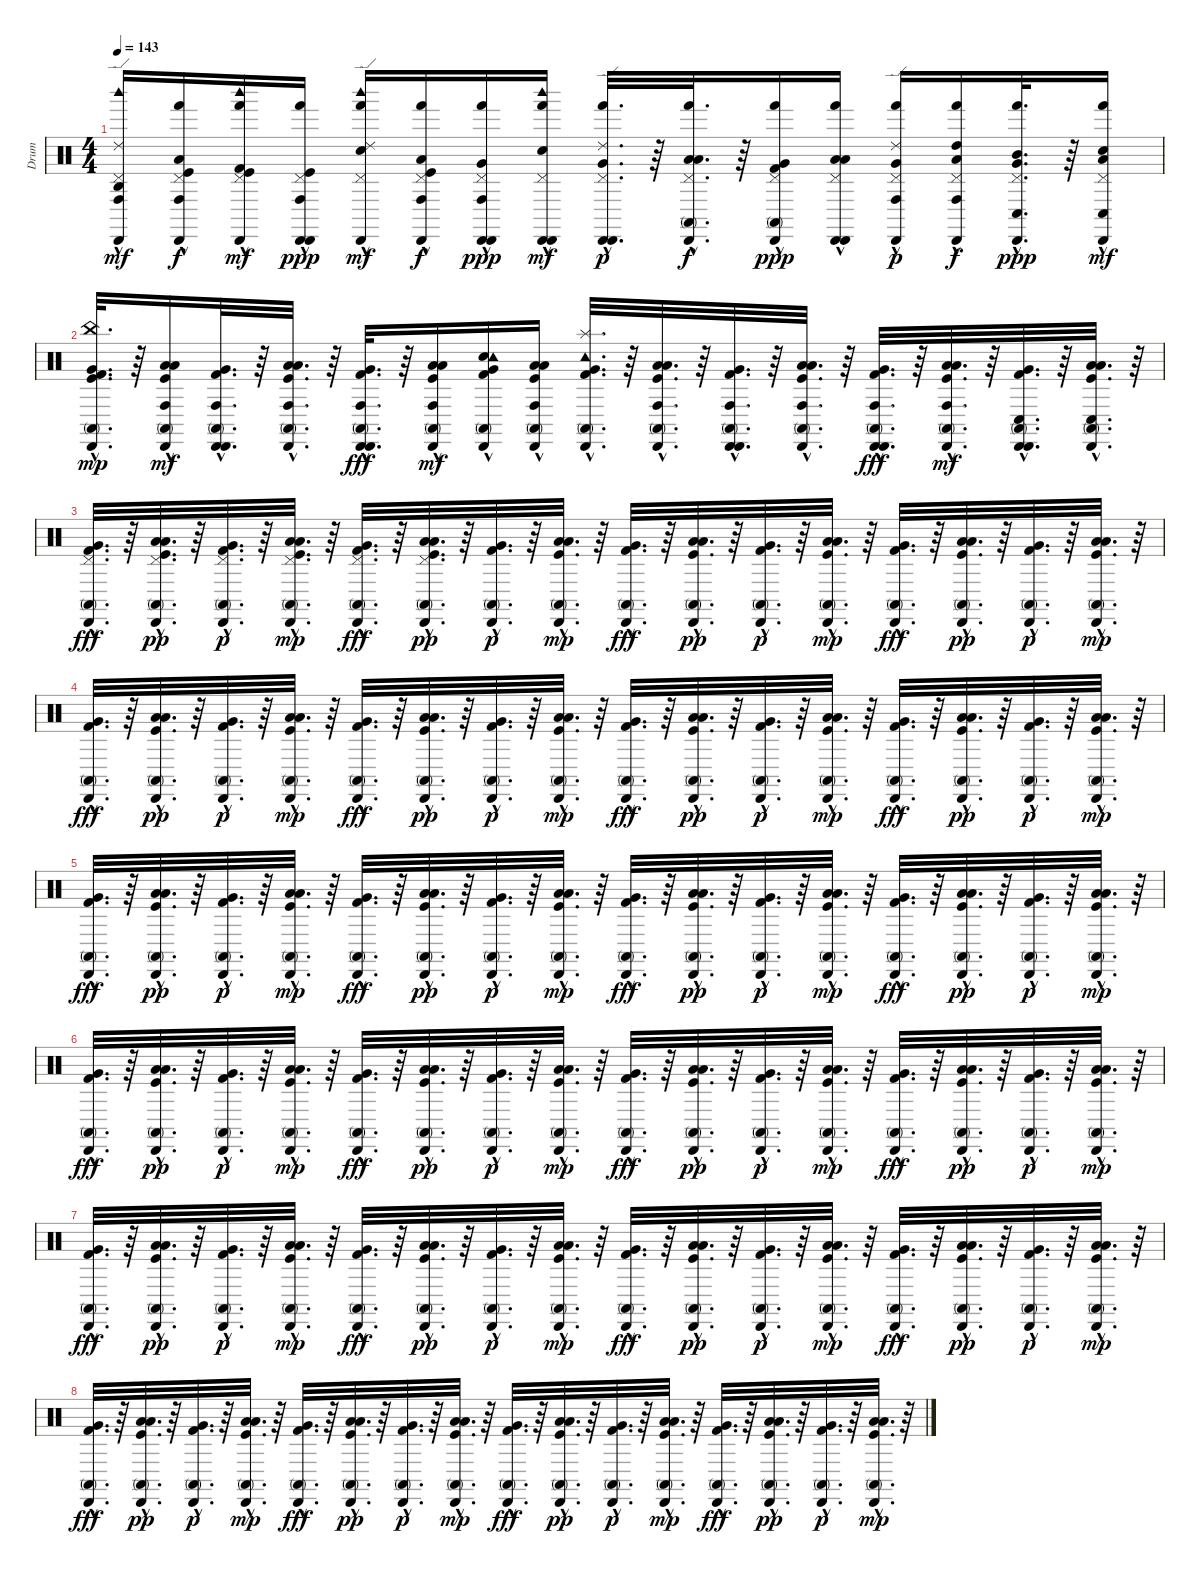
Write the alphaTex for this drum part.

\track ("Drum" "Drum") {instrument percussion}
\staff {score}
\articulation defaults
\ts (4 4)
\tempo 143
\clef neutral
\ks c
("Ride (edge) 2"{hac} "Pedal Hi-Hat (hit)"{hac} "Woodblock high (hit)"{hac} "Conga high (hit)"{hac} "Cabasa (hit)"{hac} "Agogo high (hit)"{hac}).16{dy mf} ("Conga high (hit)"{hac} "Cabasa (hit)"{hac} "Low Tom (hit)" "Hand (hit)"{hac} "Pedal Hi-Hat (hit)"{hac} "Kick (hit)"{hac}).16{dy f} ("Pedal Hi-Hat (hit)"{hac} "Woodblock high (hit)"{hac} "Kick (hit)"{hac} "Cabasa (hit)"{hac} "Kick (hit) 2"{hac} "Hand (hit)"{hac}).16{dy mf} ("Conga high (hit)"{hac} "Cabasa (hit)"{hac} "Cabasa (hit)"{hac} "Hand (hit)"{hac} "Pedal Hi-Hat (hit)"{hac} "Kick (hit)"{hac}).16{dy ppp} ("Pedal Hi-Hat (hit)"{hac} "Ride (edge) 2"{hac} "Snare (hit) 2" "Cabasa (hit)"{hac} "Woodblock high (hit)"{hac} "Hand (hit)"{hac}).16{dy mf} ("Conga high (hit)"{hac} "Cabasa (hit)"{hac} "Kick (hit)" "Hand (hit)"{hac} "Pedal Hi-Hat (hit)"{hac} "Low Tom (hit)").16{dy f} ("Pedal Hi-Hat (hit)"{hac} "Hand (hit)"{hac} "Cabasa (hit)"{hac} "Conga high (hit)" "Very Low Tom (hit)"{hac} "Cabasa (hit)"{hac}).16{dy ppp} ("Pedal Hi-Hat (hit)"{hac} "Woodblock high (hit)"{hac} "Snare (hit) 2"{hac} "Cabasa (hit)"{hac} "Cabasa (hit)"{hac} "Hand (hit)"{hac}).16{dy mf} ("Ride (edge) 2"{hac} "Hand (hit)"{hac} "Pedal Hi-Hat (hit)"{hac} "Cabasa (hit)"{hac} "Very Low Tom (hit)"{hac} "Cabasa (hit)"{hac}).32{d dy p} r.64 ("Pedal Hi-Hat (hit)"{hac} "Cabasa (hit)"{hac} "Hand (hit)"{hac} "Low Tom (hit)"{hac} "Low Floor Tom (hit)"{hac} "Conga high (mute)"{hac}).32{d dy f} r.64 ("Kick (hit) 2" "Hand (hit)"{hac} "Pedal Hi-Hat (hit)"{hac} "Very Low Tom (hit)"{hac} "Conga high (mute)" "Cabasa (hit)"{hac}).16{dy ppp} ("Pedal Hi-Hat (hit)"{hac} "Hand (hit)"{hac} "Cabasa (hit)"{hac} "Cabasa (hit)"{hac} "Low Tom (hit)"{hac} "Low Floor Tom (hit)").16 ("Pedal Hi-Hat (hit)"{hac} "Ride (edge) 2" "Cabasa (hit)"{hac} "Conga high (hit)"{hac} "Hand (hit)"{hac} "Very Low Tom (hit)"{hac}).16{dy p} ("Cabasa (hit)"{hac} "Pedal Hi-Hat (hit)"{hac} "Conga high (hit)"{hac} "High Tom (hit)"{hac} "Hand (hit)"{hac} "Low Tom (hit)"{hac}).16{dy f} ("Pedal Hi-Hat (hit)"{hac} "Hand (hit)"{hac} "Cabasa (hit)"{hac} "Conga low (hit)"{hac} "Mid Tom (hit)"{hac} "Very Low Tom (hit)"{hac}).32{d dy ppp} r.64 ("Snare (hit) 2" "Pedal Hi-Hat (hit)" "Cabasa (hit)"{hac} "Conga low (hit)"{hac} "Low Tom (hit)"{hac} "Hand (hit)").16{dy mf} |
("China (hit)"{hac} "Kick (hit) 2"{hac} "Cabasa (hit)"{hac} "Conga high (mute)"{hac} "Very Low Tom (hit)"{hac} "Kick (hit)"{hac}).32{d dy mp} r.64 ("Kick (hit)"{hac} "Cabasa (hit)"{hac} "Conga high (mute)"{hac} "Low Floor Tom (hit)"{hac} "Low Tom (hit)"{hac} "Conga high (hit)"{hac}).16{dy mf} ("Kick (hit) 2"{hac} "Cabasa (hit)"{hac} "Conga high (mute)"{hac} "Very Low Tom (hit)"{hac} "Conga high (hit)"{hac} "Cabasa (hit)"{hac}).32{d} r.64 ("Kick (hit)"{hac} "Conga high (mute)"{hac} "Low Floor Tom (hit)"{hac} "Low Tom (hit)"{hac} "Cabasa (hit)"{hac} "Conga high (hit)"{hac}).32{d} r.64 ("Very Low Tom (hit)"{hac} "Conga high (mute)"{hac} "Cabasa (hit)"{hac} "Kick (hit) 2"{hac} "Conga high (hit)"{hac} "Cabasa (hit)"{hac}).32{d dy fff} r.64 ("Low Tom (hit)"{hac} "Low Floor Tom (hit)"{hac} "Conga high (mute)"{hac} "Cabasa (hit)"{hac} "Kick (hit)"{hac} "Conga high (hit)"{hac}).16{dy mf} ("Very Low Tom (hit)"{hac} "Conga high (mute)"{hac} "Cabasa (hit)"{hac} "Kick (hit) 2"{hac} "Snare (hit) 2"{hac} "Tambourine (hit)"{hac}).16 ("Cabasa (hit)"{hac} "Low Tom (hit)"{hac} "Low Floor Tom (hit)"{hac} "Conga high (mute)"{hac} "Kick (hit)"{hac} "Conga high (hit)"{hac}).16 ("Very Low Tom (hit)"{hac} "Conga high (mute)"{hac} "Cabasa (hit)"{hac} "Kick (hit) 2"{hac} "Tambourine (hit)"{hac} "Splash (hit)"{hac}).32{d} r.64 ("Low Tom (hit)"{hac} "Low Floor Tom (hit)"{hac} "Conga high (mute)"{hac} "Cabasa (hit)"{hac} "Kick (hit)"{hac} "Conga high (hit)"{hac}).32{d} r.64 ("Very Low Tom (hit)"{hac} "Conga high (mute)"{hac} "Cabasa (hit)"{hac} "Kick (hit) 2"{hac} "Conga high (hit)"{hac} "Cabasa (hit)"{hac}).32{d} r.64 ("Cabasa (hit)"{hac} "Low Tom (hit)"{hac} "Low Floor Tom (hit)"{hac} "Conga high (mute)"{hac} "Kick (hit)"{hac} "Conga high (hit)"{hac}).32{d} r.64 ("Very Low Tom (hit)"{hac} "Conga high (mute)"{hac} "Cabasa (hit)"{hac} "Kick (hit) 2"{hac} "Conga high (hit)"{hac} "Cabasa (hit)"{hac}).32{d dy fff} r.64 ("Low Tom (hit)"{hac} "Low Floor Tom (hit)"{hac} "Conga high (mute)"{hac} "Cabasa (hit)"{hac} "Kick (hit)"{hac} "Conga high (hit)"{hac}).32{d dy mf} r.64 ("Very Low Tom (hit)"{hac} "Conga high (mute)"{hac} "Cabasa (hit)"{hac} "Kick (hit) 2"{hac} "Conga low (hit)"{hac} "Cabasa (hit)"{hac}).32{d} r.64 ("Cabasa (hit)"{hac} "Low Tom (hit)"{hac} "Low Floor Tom (hit)"{hac} "Conga high (mute)"{hac} "Kick (hit)"{hac} "Conga low (hit)"{hac}).32{d} r.64 |
("Pedal Hi-Hat (hit)"{hac} "Kick (hit) 2"{hac} "Cabasa (hit)"{hac} "Conga high (mute)"{hac} "Very Low Tom (hit)"{hac}).32{d dy fff} r.64 ("Pedal Hi-Hat (hit)"{hac} "Kick (hit)"{hac} "Cabasa (hit)"{hac} "Conga high (mute)"{hac} "Low Floor Tom (hit)"{hac} "Low Tom (hit)"{hac}).32{d dy pp} r.64 ("Pedal Hi-Hat (hit)"{hac} "Kick (hit) 2"{hac} "Cabasa (hit)"{hac} "Conga high (mute)"{hac} "Very Low Tom (hit)"{hac}).32{d dy p} r.64 ("Pedal Hi-Hat (hit)"{hac} "Kick (hit)"{hac} "Conga high (mute)"{hac} "Low Floor Tom (hit)"{hac} "Low Tom (hit)"{hac} "Cabasa (hit)"{hac}).32{d dy mp} r.64 ("Pedal Hi-Hat (hit)"{hac} "Very Low Tom (hit)"{hac} "Conga high (mute)"{hac} "Cabasa (hit)"{hac} "Kick (hit) 2"{hac}).32{d dy fff} r.64 ("Pedal Hi-Hat (hit)"{hac} "Low Tom (hit)"{hac} "Low Floor Tom (hit)"{hac} "Conga high (mute)"{hac} "Cabasa (hit)"{hac} "Kick (hit)"{hac}).32{d dy pp} r.64 ("Very Low Tom (hit)"{hac} "Conga high (mute)"{hac} "Cabasa (hit)"{hac} "Kick (hit) 2"{hac}).32{d dy p} r.64 ("Cabasa (hit)"{hac} "Low Tom (hit)"{hac} "Low Floor Tom (hit)"{hac} "Conga high (mute)"{hac} "Kick (hit)"{hac}).32{d dy mp} r.64 ("Very Low Tom (hit)"{hac} "Conga high (mute)"{hac} "Cabasa (hit)"{hac} "Kick (hit) 2"{hac}).32{d dy fff} r.64 ("Low Tom (hit)"{hac} "Low Floor Tom (hit)"{hac} "Conga high (mute)"{hac} "Cabasa (hit)"{hac} "Kick (hit)"{hac}).32{d dy pp} r.64 ("Very Low Tom (hit)"{hac} "Conga high (mute)"{hac} "Cabasa (hit)"{hac} "Kick (hit) 2"{hac}).32{d dy p} r.64 ("Cabasa (hit)"{hac} "Low Tom (hit)"{hac} "Low Floor Tom (hit)"{hac} "Conga high (mute)"{hac} "Kick (hit)"{hac}).32{d dy mp} r.64 ("Very Low Tom (hit)"{hac} "Conga high (mute)"{hac} "Cabasa (hit)"{hac} "Kick (hit) 2"{hac}).32{d dy fff} r.64 ("Low Tom (hit)"{hac} "Low Floor Tom (hit)"{hac} "Conga high (mute)"{hac} "Cabasa (hit)"{hac} "Kick (hit)"{hac}).32{d dy pp} r.64 ("Very Low Tom (hit)"{hac} "Conga high (mute)"{hac} "Cabasa (hit)"{hac} "Kick (hit) 2"{hac}).32{d dy p} r.64 ("Cabasa (hit)"{hac} "Low Tom (hit)"{hac} "Low Floor Tom (hit)"{hac} "Conga high (mute)"{hac} "Kick (hit)"{hac}).32{d dy mp} r.64 |
("Very Low Tom (hit)"{hac} "Conga high (mute)"{hac} "Cabasa (hit)"{hac} "Kick (hit) 2"{hac}).32{d dy fff} r.64 ("Low Tom (hit)"{hac} "Low Floor Tom (hit)"{hac} "Conga high (mute)"{hac} "Cabasa (hit)"{hac} "Kick (hit)"{hac}).32{d dy pp} r.64 ("Very Low Tom (hit)"{hac} "Conga high (mute)"{hac} "Cabasa (hit)"{hac} "Kick (hit) 2"{hac}).32{d dy p} r.64 ("Cabasa (hit)"{hac} "Low Tom (hit)"{hac} "Low Floor Tom (hit)"{hac} "Conga high (mute)"{hac} "Kick (hit)"{hac}).32{d dy mp} r.64 ("Kick (hit) 2"{hac} "Cabasa (hit)"{hac} "Conga high (mute)"{hac} "Very Low Tom (hit)"{hac}).32{d dy fff} r.64 ("Kick (hit)"{hac} "Cabasa (hit)"{hac} "Conga high (mute)"{hac} "Low Floor Tom (hit)"{hac} "Low Tom (hit)"{hac}).32{d dy pp} r.64 ("Kick (hit) 2"{hac} "Cabasa (hit)"{hac} "Conga high (mute)"{hac} "Very Low Tom (hit)"{hac}).32{d dy p} r.64 ("Kick (hit)"{hac} "Conga high (mute)"{hac} "Low Floor Tom (hit)"{hac} "Low Tom (hit)"{hac} "Cabasa (hit)"{hac}).32{d dy mp} r.64 ("Kick (hit) 2"{hac} "Cabasa (hit)"{hac} "Conga high (mute)"{hac} "Very Low Tom (hit)"{hac}).32{d dy fff} r.64 ("Kick (hit)"{hac} "Cabasa (hit)"{hac} "Conga high (mute)"{hac} "Low Floor Tom (hit)"{hac} "Low Tom (hit)"{hac}).32{d dy pp} r.64 ("Kick (hit) 2"{hac} "Cabasa (hit)"{hac} "Conga high (mute)"{hac} "Very Low Tom (hit)"{hac}).32{d dy p} r.64 ("Kick (hit)"{hac} "Conga high (mute)"{hac} "Low Floor Tom (hit)"{hac} "Low Tom (hit)"{hac} "Cabasa (hit)"{hac}).32{d dy mp} r.64 ("Kick (hit) 2"{hac} "Cabasa (hit)"{hac} "Conga high (mute)"{hac} "Very Low Tom (hit)"{hac}).32{d dy fff} r.64 ("Kick (hit)"{hac} "Cabasa (hit)"{hac} "Conga high (mute)"{hac} "Low Floor Tom (hit)"{hac} "Low Tom (hit)"{hac}).32{d dy pp} r.64 ("Kick (hit) 2"{hac} "Cabasa (hit)"{hac} "Conga high (mute)"{hac} "Very Low Tom (hit)"{hac}).32{d dy p} r.64 ("Kick (hit)"{hac} "Conga high (mute)"{hac} "Low Floor Tom (hit)"{hac} "Low Tom (hit)"{hac} "Cabasa (hit)"{hac}).32{d dy mp} r.64 |
("Kick (hit) 2"{hac} "Cabasa (hit)"{hac} "Conga high (mute)"{hac} "Very Low Tom (hit)"{hac}).32{d dy fff} r.64 ("Kick (hit)"{hac} "Cabasa (hit)"{hac} "Conga high (mute)"{hac} "Low Floor Tom (hit)"{hac} "Low Tom (hit)"{hac}).32{d dy pp} r.64 ("Kick (hit) 2"{hac} "Cabasa (hit)"{hac} "Conga high (mute)"{hac} "Very Low Tom (hit)"{hac}).32{d dy p} r.64 ("Kick (hit)"{hac} "Conga high (mute)"{hac} "Low Floor Tom (hit)"{hac} "Low Tom (hit)"{hac} "Cabasa (hit)"{hac}).32{d dy mp} r.64 ("Very Low Tom (hit)"{hac} "Conga high (mute)"{hac} "Cabasa (hit)"{hac} "Kick (hit) 2"{hac}).32{d dy fff} r.64 ("Low Tom (hit)"{hac} "Low Floor Tom (hit)"{hac} "Conga high (mute)"{hac} "Cabasa (hit)"{hac} "Kick (hit)"{hac}).32{d dy pp} r.64 ("Very Low Tom (hit)"{hac} "Conga high (mute)"{hac} "Cabasa (hit)"{hac} "Kick (hit) 2"{hac}).32{d dy p} r.64 ("Cabasa (hit)"{hac} "Low Tom (hit)"{hac} "Low Floor Tom (hit)"{hac} "Conga high (mute)"{hac} "Kick (hit)"{hac}).32{d dy mp} r.64 ("Very Low Tom (hit)"{hac} "Conga high (mute)"{hac} "Cabasa (hit)"{hac} "Kick (hit) 2"{hac}).32{d dy fff} r.64 ("Low Tom (hit)"{hac} "Low Floor Tom (hit)"{hac} "Conga high (mute)"{hac} "Cabasa (hit)"{hac} "Kick (hit)"{hac}).32{d dy pp} r.64 ("Very Low Tom (hit)"{hac} "Conga high (mute)"{hac} "Cabasa (hit)"{hac} "Kick (hit) 2"{hac}).32{d dy p} r.64 ("Cabasa (hit)"{hac} "Low Tom (hit)"{hac} "Low Floor Tom (hit)"{hac} "Conga high (mute)"{hac} "Kick (hit)"{hac}).32{d dy mp} r.64 ("Very Low Tom (hit)"{hac} "Conga high (mute)"{hac} "Cabasa (hit)"{hac} "Kick (hit) 2"{hac}).32{d dy fff} r.64 ("Low Tom (hit)"{hac} "Low Floor Tom (hit)"{hac} "Conga high (mute)"{hac} "Cabasa (hit)"{hac} "Kick (hit)"{hac}).32{d dy pp} r.64 ("Very Low Tom (hit)"{hac} "Conga high (mute)"{hac} "Cabasa (hit)"{hac} "Kick (hit) 2"{hac}).32{d dy p} r.64 ("Cabasa (hit)"{hac} "Low Tom (hit)"{hac} "Low Floor Tom (hit)"{hac} "Conga high (mute)"{hac} "Kick (hit)"{hac}).32{d dy mp} r.64 |
("Kick (hit) 2"{hac} "Cabasa (hit)"{hac} "Conga high (mute)"{hac} "Very Low Tom (hit)"{hac}).32{d dy fff} r.64 ("Kick (hit)"{hac} "Cabasa (hit)"{hac} "Conga high (mute)"{hac} "Low Floor Tom (hit)"{hac} "Low Tom (hit)"{hac}).32{d dy pp} r.64 ("Kick (hit) 2"{hac} "Cabasa (hit)"{hac} "Conga high (mute)"{hac} "Very Low Tom (hit)"{hac}).32{d dy p} r.64 ("Kick (hit)"{hac} "Conga high (mute)"{hac} "Low Floor Tom (hit)"{hac} "Low Tom (hit)"{hac} "Cabasa (hit)"{hac}).32{d dy mp} r.64 ("Very Low Tom (hit)"{hac} "Conga high (mute)"{hac} "Cabasa (hit)"{hac} "Kick (hit) 2"{hac}).32{d dy fff} r.64 ("Low Tom (hit)"{hac} "Low Floor Tom (hit)"{hac} "Conga high (mute)"{hac} "Cabasa (hit)"{hac} "Kick (hit)"{hac}).32{d dy pp} r.64 ("Very Low Tom (hit)"{hac} "Conga high (mute)"{hac} "Cabasa (hit)"{hac} "Kick (hit) 2"{hac}).32{d dy p} r.64 ("Cabasa (hit)"{hac} "Low Tom (hit)"{hac} "Low Floor Tom (hit)"{hac} "Conga high (mute)"{hac} "Kick (hit)"{hac}).32{d dy mp} r.64 ("Very Low Tom (hit)"{hac} "Conga high (mute)"{hac} "Cabasa (hit)"{hac} "Kick (hit) 2"{hac}).32{d dy fff} r.64 ("Low Tom (hit)"{hac} "Low Floor Tom (hit)"{hac} "Conga high (mute)"{hac} "Cabasa (hit)"{hac} "Kick (hit)"{hac}).32{d dy pp} r.64 ("Very Low Tom (hit)"{hac} "Conga high (mute)"{hac} "Cabasa (hit)"{hac} "Kick (hit) 2"{hac}).32{d dy p} r.64 ("Cabasa (hit)"{hac} "Low Tom (hit)"{hac} "Low Floor Tom (hit)"{hac} "Conga high (mute)"{hac} "Kick (hit)"{hac}).32{d dy mp} r.64 ("Very Low Tom (hit)"{hac} "Conga high (mute)"{hac} "Cabasa (hit)"{hac} "Kick (hit) 2"{hac}).32{d dy fff} r.64 ("Low Tom (hit)"{hac} "Low Floor Tom (hit)"{hac} "Conga high (mute)"{hac} "Cabasa (hit)"{hac} "Kick (hit)"{hac}).32{d dy pp} r.64 ("Very Low Tom (hit)"{hac} "Conga high (mute)"{hac} "Cabasa (hit)"{hac} "Kick (hit) 2"{hac}).32{d dy p} r.64 ("Cabasa (hit)"{hac} "Low Tom (hit)"{hac} "Low Floor Tom (hit)"{hac} "Conga high (mute)"{hac} "Kick (hit)"{hac}).32{d dy mp} r.64 |
("Kick (hit) 2"{hac} "Cabasa (hit)"{hac} "Conga high (mute)"{hac} "Very Low Tom (hit)"{hac}).32{d dy fff} r.64 ("Kick (hit)"{hac} "Cabasa (hit)"{hac} "Conga high (mute)"{hac} "Low Floor Tom (hit)"{hac} "Low Tom (hit)"{hac}).32{d dy pp} r.64 ("Kick (hit) 2"{hac} "Cabasa (hit)"{hac} "Conga high (mute)"{hac} "Very Low Tom (hit)"{hac}).32{d dy p} r.64 ("Kick (hit)"{hac} "Conga high (mute)"{hac} "Low Floor Tom (hit)"{hac} "Low Tom (hit)"{hac} "Cabasa (hit)"{hac}).32{d dy mp} r.64 ("Very Low Tom (hit)"{hac} "Conga high (mute)"{hac} "Cabasa (hit)"{hac} "Kick (hit) 2"{hac}).32{d dy fff} r.64 ("Low Tom (hit)"{hac} "Low Floor Tom (hit)"{hac} "Conga high (mute)"{hac} "Cabasa (hit)"{hac} "Kick (hit)"{hac}).32{d dy pp} r.64 ("Very Low Tom (hit)"{hac} "Conga high (mute)"{hac} "Cabasa (hit)"{hac} "Kick (hit) 2"{hac}).32{d dy p} r.64 ("Cabasa (hit)"{hac} "Low Tom (hit)"{hac} "Low Floor Tom (hit)"{hac} "Conga high (mute)"{hac} "Kick (hit)"{hac}).32{d dy mp} r.64 ("Very Low Tom (hit)"{hac} "Conga high (mute)"{hac} "Cabasa (hit)"{hac} "Kick (hit) 2"{hac}).32{d dy fff} r.64 ("Low Tom (hit)"{hac} "Low Floor Tom (hit)"{hac} "Conga high (mute)"{hac} "Cabasa (hit)"{hac} "Kick (hit)"{hac}).32{d dy pp} r.64 ("Very Low Tom (hit)"{hac} "Conga high (mute)"{hac} "Cabasa (hit)"{hac} "Kick (hit) 2"{hac}).32{d dy p} r.64 ("Cabasa (hit)"{hac} "Low Tom (hit)"{hac} "Low Floor Tom (hit)"{hac} "Conga high (mute)"{hac} "Kick (hit)"{hac}).32{d dy mp} r.64 ("Very Low Tom (hit)"{hac} "Conga high (mute)"{hac} "Cabasa (hit)"{hac} "Kick (hit) 2"{hac}).32{d dy fff} r.64 ("Low Tom (hit)"{hac} "Low Floor Tom (hit)"{hac} "Conga high (mute)"{hac} "Cabasa (hit)"{hac} "Kick (hit)"{hac}).32{d dy pp} r.64 ("Very Low Tom (hit)"{hac} "Conga high (mute)"{hac} "Cabasa (hit)"{hac} "Kick (hit) 2"{hac}).32{d dy p} r.64 ("Cabasa (hit)"{hac} "Low Tom (hit)"{hac} "Low Floor Tom (hit)"{hac} "Conga high (mute)"{hac} "Kick (hit)"{hac}).32{d dy mp} r.64 |
("Kick (hit) 2"{hac} "Cabasa (hit)"{hac} "Conga high (mute)"{hac} "Very Low Tom (hit)"{hac}).32{d dy fff} r.64 ("Kick (hit)"{hac} "Cabasa (hit)"{hac} "Conga high (mute)"{hac} "Low Floor Tom (hit)"{hac} "Low Tom (hit)"{hac}).32{d dy pp} r.64 ("Kick (hit) 2"{hac} "Cabasa (hit)"{hac} "Conga high (mute)"{hac} "Very Low Tom (hit)"{hac}).32{d dy p} r.64 ("Kick (hit)"{hac} "Conga high (mute)"{hac} "Low Floor Tom (hit)"{hac} "Low Tom (hit)"{hac} "Cabasa (hit)"{hac}).32{d dy mp} r.64 ("Very Low Tom (hit)"{hac} "Conga high (mute)"{hac} "Cabasa (hit)"{hac} "Kick (hit) 2"{hac}).32{d dy fff} r.64 ("Low Tom (hit)"{hac} "Low Floor Tom (hit)"{hac} "Conga high (mute)"{hac} "Cabasa (hit)"{hac} "Kick (hit)"{hac}).32{d dy pp} r.64 ("Very Low Tom (hit)"{hac} "Conga high (mute)"{hac} "Cabasa (hit)"{hac} "Kick (hit) 2"{hac}).32{d dy p} r.64 ("Cabasa (hit)"{hac} "Low Tom (hit)"{hac} "Low Floor Tom (hit)"{hac} "Conga high (mute)"{hac} "Kick (hit)"{hac}).32{d dy mp} r.64 ("Very Low Tom (hit)"{hac} "Conga high (mute)"{hac} "Cabasa (hit)"{hac} "Kick (hit) 2"{hac}).32{d dy fff} r.64 ("Low Tom (hit)"{hac} "Low Floor Tom (hit)"{hac} "Conga high (mute)"{hac} "Cabasa (hit)"{hac} "Kick (hit)"{hac}).32{d dy pp} r.64 ("Very Low Tom (hit)"{hac} "Conga high (mute)"{hac} "Cabasa (hit)"{hac} "Kick (hit) 2"{hac}).32{d dy p} r.64 ("Cabasa (hit)"{hac} "Low Tom (hit)"{hac} "Low Floor Tom (hit)"{hac} "Conga high (mute)"{hac} "Kick (hit)"{hac}).32{d dy mp} r.64 ("Very Low Tom (hit)"{hac} "Conga high (mute)"{hac} "Cabasa (hit)"{hac} "Kick (hit) 2"{hac}).32{d dy fff} r.64 ("Low Tom (hit)"{hac} "Low Floor Tom (hit)"{hac} "Conga high (mute)"{hac} "Cabasa (hit)"{hac} "Kick (hit)"{hac}).32{d dy pp} r.64 ("Very Low Tom (hit)"{hac} "Conga high (mute)"{hac} "Cabasa (hit)"{hac} "Kick (hit) 2"{hac}).32{d dy p} r.64 ("Cabasa (hit)"{hac} "Low Tom (hit)"{hac} "Low Floor Tom (hit)"{hac} "Conga high (mute)"{hac} "Kick (hit)"{hac}).32{d dy mp} r.64
